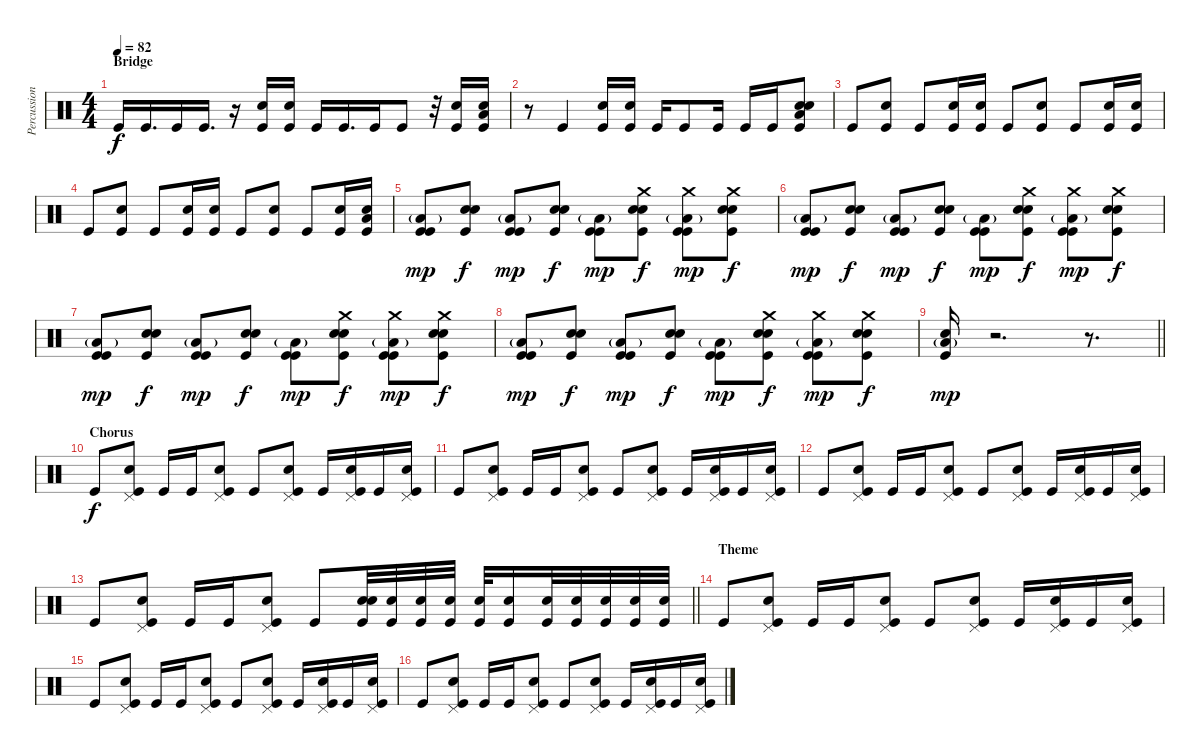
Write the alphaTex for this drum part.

\track ("Percussion" "Percussion") {instrument percussion}
\staff {score}
\articulation defaults
\ts (4 4)
\section ("" "Bridge")
\tempo 82
\clef neutral
\ks c "Kick (hit)".16{dy f volume 16} "Kick (hit)".16{d} "Kick (hit)".16 "Kick (hit)".16{d}
r.16 ("Snare (hit) 2" "Kick (hit)").16 ("Snare (hit) 2" "Kick (hit)").16 "Kick (hit)".16 "Kick (hit)".16{d} "Kick (hit)".16 "Kick (hit)".8 r.32 ("Snare (hit) 2" "Kick (hit)").16 ("Low Tom (hit)" "Snare (hit) 2" "Kick (hit)").16 |
r.8 "Kick (hit)".4 ("Snare (hit) 2" "Kick (hit)").16 ("Snare (hit) 2" "Kick (hit)").16 "Kick (hit)".16 "Kick (hit)".8 "Kick (hit)".16 "Kick (hit)".16 "Kick (hit)".16 ("Low Tom (hit)" "Snare (hit) 2" "Snare (hit) 2" "Kick (hit)").8 |
"Kick (hit)".8 ("Snare (hit) 2" "Kick (hit)").8 "Kick (hit)".8 ("Snare (hit) 2" "Kick (hit)").16 ("Snare (hit) 2" "Kick (hit)").16 "Kick (hit)".8 ("Snare (hit) 2" "Kick (hit)").8 "Kick (hit)".8 ("Snare (hit) 2" "Kick (hit)").16 ("Snare (hit) 2" "Kick (hit)").16 |
"Kick (hit)".8 ("Snare (hit) 2" "Kick (hit)").8 "Kick (hit)".8 ("Snare (hit) 2" "Kick (hit)").16 ("Snare (hit) 2" "Kick (hit)").16 "Kick (hit)".8 ("Snare (hit) 2" "Kick (hit)").8 "Kick (hit)".8 ("Snare (hit) 2" "Kick (hit)").16 ("Low Tom (hit)" "Snare (hit) 2" "Kick (hit)").16 |
("Low Tom (hit)"{g} "Kick (hit)" "Kick (hit)").8{dy mp volume 11} ("Electric Snare (hit)" "Snare (hit) 2" "Kick (hit)").8{dy f} ("Low Tom (hit)"{g} "Kick (hit)" "Kick (hit)").8{dy mp} ("Electric Snare (hit)" "Snare (hit) 2" "Kick (hit)").8{dy f} ("Low Tom (hit)"{g} "Kick (hit)" "Kick (hit)").8{dy mp} ("Crash medium (hit)" "Electric Snare (hit)" "Snare (hit) 2" "Kick (hit)").8{dy f} ("Crash medium (hit)" "Low Tom (hit)"{g} "Kick (hit)" "Kick (hit)").8{dy mp} ("Crash medium (hit)" "Electric Snare (hit)" "Snare (hit) 2" "Kick (hit)").8{dy f} |
("Low Tom (hit)"{g} "Kick (hit)" "Kick (hit)").8{dy mp} ("Electric Snare (hit)" "Snare (hit) 2" "Kick (hit)").8{dy f} ("Low Tom (hit)"{g} "Kick (hit)" "Kick (hit)").8{dy mp} ("Electric Snare (hit)" "Snare (hit) 2" "Kick (hit)").8{dy f} ("Low Tom (hit)"{g} "Kick (hit)" "Kick (hit)").8{dy mp} ("Crash medium (hit)" "Electric Snare (hit)" "Snare (hit) 2" "Kick (hit)").8{dy f} ("Crash medium (hit)" "Low Tom (hit)"{g} "Kick (hit)" "Kick (hit)").8{dy mp} ("Crash medium (hit)" "Electric Snare (hit)" "Snare (hit) 2" "Kick (hit)").8{dy f} |
("Low Tom (hit)"{g} "Kick (hit)" "Kick (hit)").8{dy mp} ("Electric Snare (hit)" "Snare (hit) 2" "Kick (hit)").8{dy f} ("Low Tom (hit)"{g} "Kick (hit)" "Kick (hit)").8{dy mp} ("Electric Snare (hit)" "Snare (hit) 2" "Kick (hit)").8{dy f} ("Low Tom (hit)"{g} "Kick (hit)" "Kick (hit)").8{dy mp} ("Crash medium (hit)" "Electric Snare (hit)" "Snare (hit) 2" "Kick (hit)").8{dy f} ("Crash medium (hit)" "Low Tom (hit)"{g} "Kick (hit)" "Kick (hit)").8{dy mp} ("Crash medium (hit)" "Electric Snare (hit)" "Snare (hit) 2" "Kick (hit)").8{dy f} |
("Low Tom (hit)"{g} "Kick (hit)" "Kick (hit)").8{dy mp} ("Electric Snare (hit)" "Snare (hit) 2" "Kick (hit)").8{dy f} ("Low Tom (hit)"{g} "Kick (hit)" "Kick (hit)").8{dy mp} ("Electric Snare (hit)" "Snare (hit) 2" "Kick (hit)").8{dy f} ("Low Tom (hit)"{g} "Kick (hit)" "Kick (hit)").8{dy mp} ("Crash medium (hit)" "Electric Snare (hit)" "Snare (hit) 2" "Kick (hit)").8{dy f} ("Crash medium (hit)" "Low Tom (hit)"{g} "Kick (hit)" "Kick (hit)").8{dy mp} ("Crash medium (hit)" "Electric Snare (hit)" "Snare (hit) 2" "Kick (hit)").8{dy f} |
\barLineRight lightlight
("Low Tom (hit)"{g} "Snare (hit) 2" "Kick (hit)").16{dy mp} r.2{d} r.8{d} |
\section ("" "Chorus")
"Kick (hit)".8{dy f} ("Pedal Hi-Hat (hit)" "Kick (hit)" "Snare (hit) 2").8 "Kick (hit)".16 "Kick (hit)".16 ("Pedal Hi-Hat (hit)" "Kick (hit)" "Snare (hit) 2").8 "Kick (hit)".8 ("Pedal Hi-Hat (hit)" "Kick (hit)" "Snare (hit) 2").8 "Kick (hit)".16 ("Pedal Hi-Hat (hit)" "Kick (hit)" "Snare (hit) 2").16 "Kick (hit)".16 ("Pedal Hi-Hat (hit)" "Kick (hit)" "Snare (hit) 2").16 |
"Kick (hit)".8 ("Pedal Hi-Hat (hit)" "Kick (hit)" "Snare (hit) 2").8 "Kick (hit)".16 "Kick (hit)".16 ("Pedal Hi-Hat (hit)" "Kick (hit)" "Snare (hit) 2").8 "Kick (hit)".8 ("Pedal Hi-Hat (hit)" "Kick (hit)" "Snare (hit) 2").8 "Kick (hit)".16 ("Pedal Hi-Hat (hit)" "Kick (hit)" "Snare (hit) 2").16 "Kick (hit)".16 ("Pedal Hi-Hat (hit)" "Kick (hit)" "Snare (hit) 2").16 |
"Kick (hit)".8 ("Pedal Hi-Hat (hit)" "Kick (hit)" "Snare (hit) 2").8 "Kick (hit)".16 "Kick (hit)".16 ("Pedal Hi-Hat (hit)" "Kick (hit)" "Snare (hit) 2").8 "Kick (hit)".8 ("Pedal Hi-Hat (hit)" "Kick (hit)" "Snare (hit) 2").8 "Kick (hit)".16 ("Pedal Hi-Hat (hit)" "Kick (hit)" "Snare (hit) 2").16 "Kick (hit)".16 ("Pedal Hi-Hat (hit)" "Kick (hit)" "Snare (hit) 2").16 |
\barLineRight lightlight "Kick (hit)".8
("Pedal Hi-Hat (hit)" "Kick (hit)" "Snare (hit) 2").8 "Kick (hit)".16 "Kick (hit)".16 ("Pedal Hi-Hat (hit)" "Kick (hit)" "Snare (hit) 2").8 "Kick (hit)".8 ("Snare (hit) 2" "Kick (hit)" "Snare (hit) 2").32{volume 16} ("Snare (hit) 2" "Kick (hit)").32 ("Snare (hit) 2" "Kick (hit)").32 ("Snare (hit) 2" "Kick (hit)").32 ("Snare (hit) 2" "Kick (hit)").32 ("Snare (hit) 2" "Kick (hit)").16 ("Snare (hit) 2" "Kick (hit)").32 ("Snare (hit) 2" "Kick (hit)").32 ("Snare (hit) 2" "Kick (hit)").32 ("Snare (hit) 2" "Kick (hit)").32 ("Snare (hit) 2" "Kick (hit)").32{volume 12} |
\section ("" "Theme")
"Kick (hit)".8 ("Pedal Hi-Hat (hit)" "Kick (hit)" "Snare (hit) 2").8 "Kick (hit)".16 "Kick (hit)".16 ("Pedal Hi-Hat (hit)" "Kick (hit)" "Snare (hit) 2").8 "Kick (hit)".8 ("Pedal Hi-Hat (hit)" "Kick (hit)" "Snare (hit) 2").8 "Kick (hit)".16 ("Pedal Hi-Hat (hit)" "Kick (hit)" "Snare (hit) 2").16 "Kick (hit)".16 ("Pedal Hi-Hat (hit)" "Kick (hit)" "Snare (hit) 2").16 |
"Kick (hit)".8 ("Pedal Hi-Hat (hit)" "Kick (hit)" "Snare (hit) 2").8 "Kick (hit)".16 "Kick (hit)".16 ("Pedal Hi-Hat (hit)" "Kick (hit)" "Snare (hit) 2").8 "Kick (hit)".8 ("Pedal Hi-Hat (hit)" "Kick (hit)" "Snare (hit) 2").8 "Kick (hit)".16 ("Pedal Hi-Hat (hit)" "Kick (hit)" "Snare (hit) 2").16 "Kick (hit)".16 ("Pedal Hi-Hat (hit)" "Kick (hit)" "Snare (hit) 2").16 |
"Kick (hit)".8 ("Pedal Hi-Hat (hit)" "Kick (hit)" "Snare (hit) 2").8 "Kick (hit)".16 "Kick (hit)".16 ("Pedal Hi-Hat (hit)" "Kick (hit)" "Snare (hit) 2").8 "Kick (hit)".8 ("Pedal Hi-Hat (hit)" "Kick (hit)" "Snare (hit) 2").8 "Kick (hit)".16 ("Pedal Hi-Hat (hit)" "Kick (hit)" "Snare (hit) 2").16 "Kick (hit)".16 ("Pedal Hi-Hat (hit)" "Kick (hit)" "Snare (hit) 2").16
